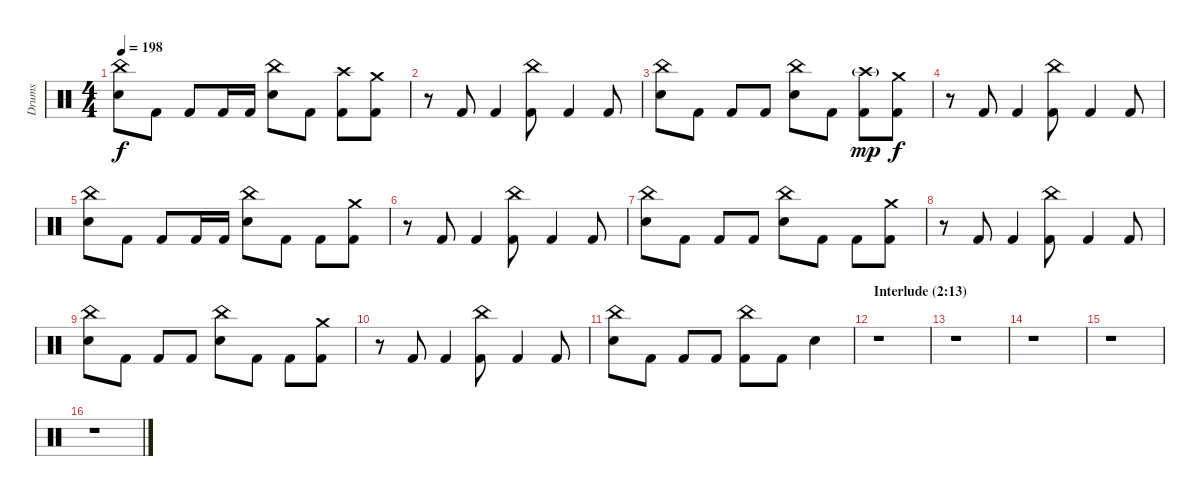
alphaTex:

\track ("Drums" "Drums") {instrument percussion}
\staff {score}
\articulation defaults
\ts (4 4)
\tempo 198
\clef neutral
\ks c
("China (hit)" "Snare (hit) 2").8{dy f} "Kick (hit) 2".8 "Kick (hit) 2".8 "Kick (hit) 2".16 "Kick (hit) 2".16 ("China (hit)" "Snare (hit) 2").8 "Kick (hit) 2".8 ("Crash high (hit)" "Kick (hit) 2").8 ("Crash medium (hit)" "Kick (hit) 2").8 |
r.8 "Kick (hit) 2".8 "Kick (hit) 2".4 ("China (hit)" "Kick (hit) 2").8 "Kick (hit) 2".4 "Kick (hit) 2".8 |
("China (hit)" "Snare (hit) 2").8 "Kick (hit) 2".8 "Kick (hit) 2".8 "Kick (hit) 2".8 ("China (hit)" "Snare (hit) 2").8 "Kick (hit) 2".8 ("Crash high (hit)"{g} "Kick (hit) 2").8{dy mp} ("Crash medium (hit)" "Kick (hit) 2").8{dy f} |
r.8 "Kick (hit) 2".8 "Kick (hit) 2".4 ("China (hit)" "Kick (hit) 2").8 "Kick (hit) 2".4 "Kick (hit) 2".8 |
("China (hit)" "Snare (hit) 2").8 "Kick (hit) 2".8 "Kick (hit) 2".8 "Kick (hit) 2".16 "Kick (hit) 2".16 ("China (hit)" "Snare (hit) 2").8 "Kick (hit) 2".8 "Kick (hit) 2".8 ("Crash medium (hit)" "Kick (hit) 2").8 |
r.8 "Kick (hit) 2".8 "Kick (hit) 2".4 ("China (hit)" "Kick (hit) 2").8 "Kick (hit) 2".4 "Kick (hit) 2".8 |
("China (hit)" "Snare (hit) 2").8 "Kick (hit) 2".8 "Kick (hit) 2".8 "Kick (hit) 2".8 ("China (hit)" "Snare (hit) 2").8 "Kick (hit) 2".8 "Kick (hit) 2".8 ("Crash medium (hit)" "Kick (hit) 2").8 |
r.8 "Kick (hit) 2".8 "Kick (hit) 2".4 ("China (hit)" "Kick (hit) 2").8 "Kick (hit) 2".4 "Kick (hit) 2".8 |
("China (hit)" "Snare (hit) 2").8 "Kick (hit) 2".8 "Kick (hit) 2".8 "Kick (hit) 2".8 ("China (hit)" "Snare (hit) 2").8 "Kick (hit) 2".8 "Kick (hit) 2".8 ("Crash medium (hit)" "Kick (hit) 2").8 |
r.8 "Kick (hit) 2".8 "Kick (hit) 2".4 ("China (hit)" "Kick (hit) 2").8 "Kick (hit) 2".4 "Kick (hit) 2".8 |
("China (hit)" "Snare (hit) 2").8 "Kick (hit) 2".8 "Kick (hit) 2".8 "Kick (hit) 2".8 ("China (hit)" "Kick (hit) 2").8 "Kick (hit) 2".8 "Snare (hit) 2".4 |
\section ("" "Interlude (2:13)")
r.1 |
r.1 |
r.1 |
r.1 |
r.1
